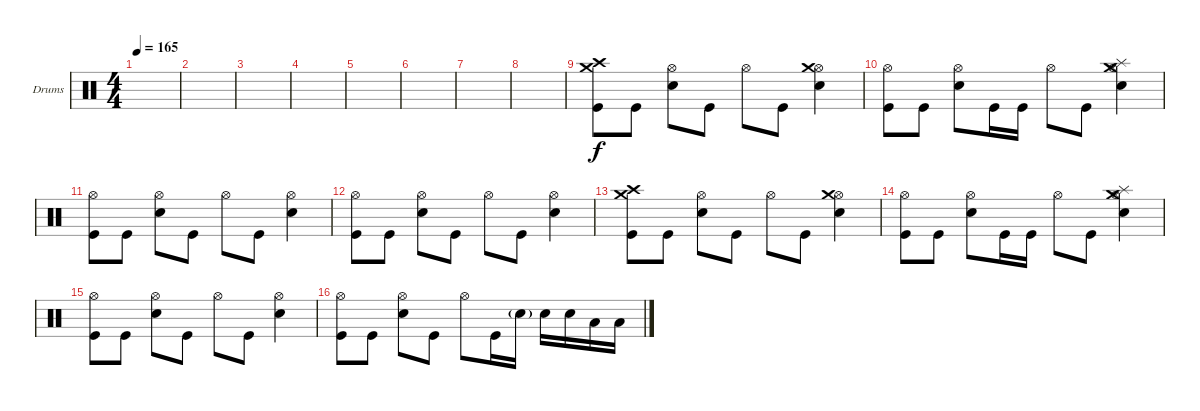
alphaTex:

\defaultSystemsLayout 4
\bracketExtendMode groupsimilarinstruments
\firstSystemTrackNameOrientation horizontal
\otherSystemsTrackNameOrientation horizontal
\track ("Drumkit" "Drums") {instrument percussion}
\staff {score}
\articulation defaults
\ts (4 4)
\tempo 165
\clef neutral
\scale
0.472222
\ks c
|
\scale
0.263889 |
\scale
0.263889 |
\scale
0.333333 |
\scale
0.333333 |
\scale
0.333333 |
|
|
("Kick (hit)" "Crash high (hit)" "Crash medium (hit)").8 "Kick (hit)".8 ("Hi-Hat (open)" "Snare (hit) 2").8 "Kick (hit)".8 "Hi-Hat (open)".8 "Kick (hit)".8 ("Snare (hit) 2" "Hi-Hat (open)" "Crash medium (hit)").4 |
("Kick (hit)" "Hi-Hat (open)").8 "Kick (hit)".8 ("Hi-Hat (open)" "Snare (hit) 2").8 "Kick (hit)".16 "Kick (hit)".16 "Hi-Hat (open)".8 "Kick (hit)".8 ("Snare (hit) 2" "Hi-Hat (open)" "Crash medium (hit)" "Splash (hit)").4 |
("Kick (hit)" "Hi-Hat (open)").8 "Kick (hit)".8 ("Hi-Hat (open)" "Snare (hit) 2").8 "Kick (hit)".8 "Hi-Hat (open)".8 "Kick (hit)".8 ("Snare (hit) 2" "Hi-Hat (open)").4 |
("Kick (hit)" "Hi-Hat (open)").8 "Kick (hit)".8 ("Hi-Hat (open)" "Snare (hit) 2").8 "Kick (hit)".8 "Hi-Hat (open)".8 "Kick (hit)".8 ("Snare (hit) 2" "Hi-Hat (open)").4 |
("Kick (hit)" "Crash high (hit)" "Crash medium (hit)").8 "Kick (hit)".8 ("Hi-Hat (open)" "Snare (hit) 2").8 "Kick (hit)".8 "Hi-Hat (open)".8 "Kick (hit)".8 ("Snare (hit) 2" "Hi-Hat (open)" "Crash medium (hit)").4 |
("Kick (hit)" "Hi-Hat (open)").8 "Kick (hit)".8 ("Hi-Hat (open)" "Snare (hit) 2").8 "Kick (hit)".16 "Kick (hit)".16 "Hi-Hat (open)".8 "Kick (hit)".8 ("Snare (hit) 2" "Hi-Hat (open)" "Crash medium (hit)" "Splash (hit)").4 |
("Kick (hit)" "Hi-Hat (open)").8 "Kick (hit)".8 ("Hi-Hat (open)" "Snare (hit) 2").8 "Kick (hit)".8 "Hi-Hat (open)".8 "Kick (hit)".8 ("Snare (hit) 2" "Hi-Hat (open)").4 |
("Kick (hit)" "Hi-Hat (open)").8 "Kick (hit)".8 ("Hi-Hat (open)" "Snare (hit) 2").8 "Kick (hit)".8 "Hi-Hat (open)".8 "Kick (hit)".16 "Snare (hit) 2"{g}.16 "Snare (hit) 2".16 "Snare (hit) 2".16 "Low Tom (hit)".16 "Low Tom (hit)".16
